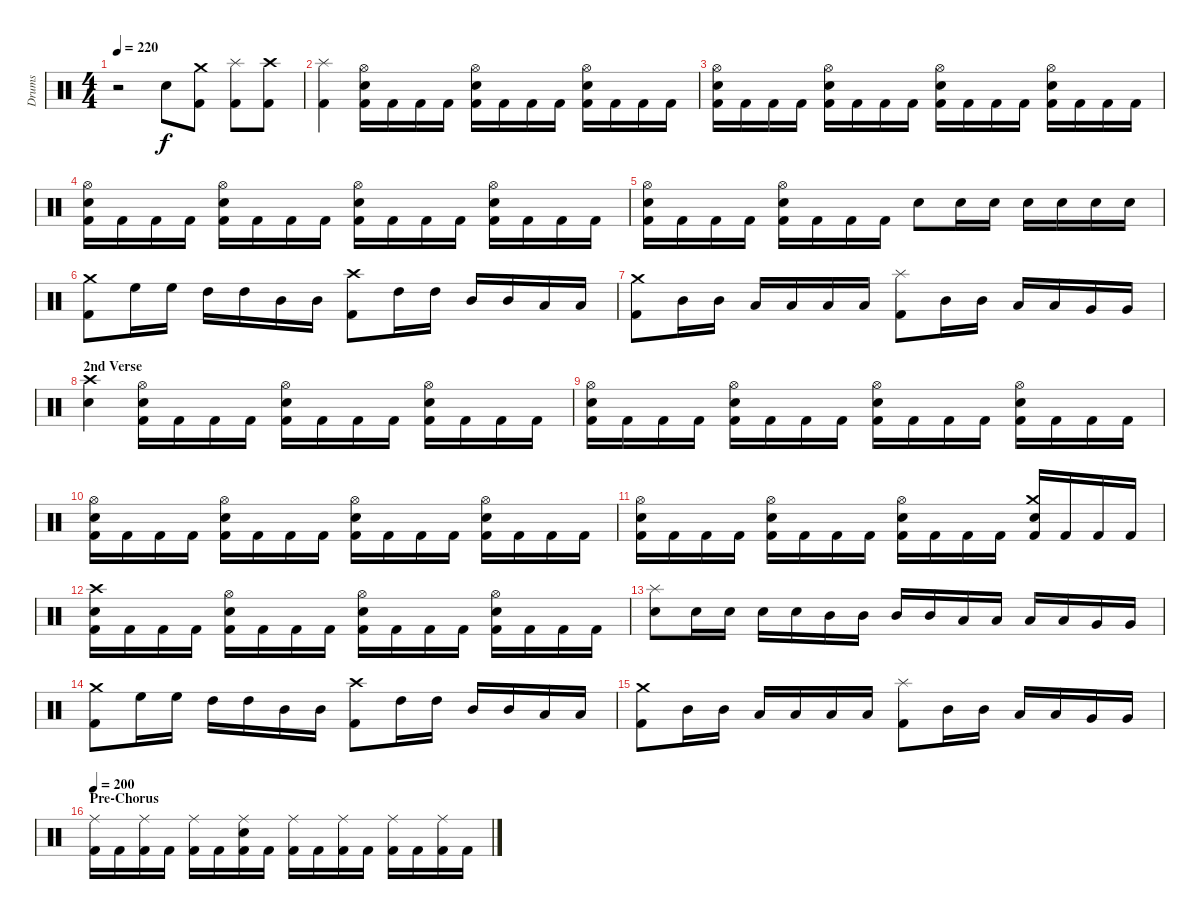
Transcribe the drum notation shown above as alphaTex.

\track ("Drums" "Drums") {instrument percussion}
\staff {score}
\articulation defaults
\ts (4 4)
\tempo 220
\clef neutral
\ks c
r.2{dy f} "Electric Snare (hit)".8 ("Crash medium (hit)" "Kick (hit) 2").8 ("Splash (hit)" "Kick (hit) 2").8 ("Crash high (hit)" "Kick (hit) 2").8 |
("Splash (hit)" "Kick (hit) 2").4 ("Hi-Hat (open)" "Electric Snare (hit)" "Kick (hit) 2").16 "Kick (hit) 2".16 "Kick (hit) 2".16 "Kick (hit) 2".16 ("Hi-Hat (open)" "Electric Snare (hit)" "Kick (hit) 2").16 "Kick (hit) 2".16 "Kick (hit) 2".16 "Kick (hit) 2".16 ("Hi-Hat (open)" "Electric Snare (hit)" "Kick (hit) 2").16 "Kick (hit) 2".16 "Kick (hit) 2".16 "Kick (hit) 2".16 |
("Hi-Hat (open)" "Electric Snare (hit)" "Kick (hit) 2").16 "Kick (hit) 2".16 "Kick (hit) 2".16 "Kick (hit) 2".16 ("Hi-Hat (open)" "Electric Snare (hit)" "Kick (hit) 2").16 "Kick (hit) 2".16 "Kick (hit) 2".16 "Kick (hit) 2".16 ("Hi-Hat (open)" "Electric Snare (hit)" "Kick (hit) 2").16 "Kick (hit) 2".16 "Kick (hit) 2".16 "Kick (hit) 2".16 ("Hi-Hat (open)" "Electric Snare (hit)" "Kick (hit) 2").16 "Kick (hit) 2".16 "Kick (hit) 2".16 "Kick (hit) 2".16 |
("Hi-Hat (open)" "Electric Snare (hit)" "Kick (hit) 2").16 "Kick (hit) 2".16 "Kick (hit) 2".16 "Kick (hit) 2".16 ("Hi-Hat (open)" "Electric Snare (hit)" "Kick (hit) 2").16 "Kick (hit) 2".16 "Kick (hit) 2".16 "Kick (hit) 2".16 ("Hi-Hat (open)" "Electric Snare (hit)" "Kick (hit) 2").16 "Kick (hit) 2".16 "Kick (hit) 2".16 "Kick (hit) 2".16 ("Hi-Hat (open)" "Electric Snare (hit)" "Kick (hit) 2").16 "Kick (hit) 2".16 "Kick (hit) 2".16 "Kick (hit) 2".16 |
("Hi-Hat (open)" "Electric Snare (hit)" "Kick (hit) 2").16 "Kick (hit) 2".16 "Kick (hit) 2".16 "Kick (hit) 2".16 ("Hi-Hat (open)" "Electric Snare (hit)" "Kick (hit) 2").16 "Kick (hit) 2".16 "Kick (hit) 2".16 "Kick (hit) 2".16 "Electric Snare (hit)".8 "Electric Snare (hit)".16 "Electric Snare (hit)".16 "Electric Snare (hit)".16 "Electric Snare (hit)".16 "Electric Snare (hit)".16 "Electric Snare (hit)".16 |
("Crash medium (hit)" "Kick (hit) 2").8 "High Floor Tom (hit)".16 "High Floor Tom (hit)".16 "High Tom (hit)".16 "High Tom (hit)".16 "Mid Tom (hit)".16 "Mid Tom (hit)".16 ("Crash high (hit)" "Kick (hit) 2").8 "High Tom (hit)".16 "High Tom (hit)".16 "Mid Tom (hit)".16 "Mid Tom (hit)".16 "Low Tom (hit)".16 "Low Tom (hit)".16 |
("Crash medium (hit)" "Kick (hit) 2").8 "Mid Tom (hit)".16 "Mid Tom (hit)".16 "Low Tom (hit)".16 "Low Tom (hit)".16 "Low Tom (hit)".16 "Low Tom (hit)".16 ("Splash (hit)" "Kick (hit) 2").8 "Mid Tom (hit)".16 "Mid Tom (hit)".16 "Low Tom (hit)".16 "Low Tom (hit)".16 "Very Low Tom (hit)".16 "Very Low Tom (hit)".16 |
\section ("" "2nd Verse")
("Crash high (hit)" "Electric Snare (hit)").4 ("Hi-Hat (open)" "Electric Snare (hit)" "Kick (hit) 2").16 "Kick (hit) 2".16 "Kick (hit) 2".16 "Kick (hit) 2".16 ("Hi-Hat (open)" "Electric Snare (hit)" "Kick (hit) 2").16 "Kick (hit) 2".16 "Kick (hit) 2".16 "Kick (hit) 2".16 ("Hi-Hat (open)" "Electric Snare (hit)" "Kick (hit) 2").16 "Kick (hit) 2".16 "Kick (hit) 2".16 "Kick (hit) 2".16 |
("Hi-Hat (open)" "Electric Snare (hit)" "Kick (hit) 2").16 "Kick (hit) 2".16 "Kick (hit) 2".16 "Kick (hit) 2".16 ("Hi-Hat (open)" "Electric Snare (hit)" "Kick (hit) 2").16 "Kick (hit) 2".16 "Kick (hit) 2".16 "Kick (hit) 2".16 ("Hi-Hat (open)" "Electric Snare (hit)" "Kick (hit) 2").16 "Kick (hit) 2".16 "Kick (hit) 2".16 "Kick (hit) 2".16 ("Hi-Hat (open)" "Electric Snare (hit)" "Kick (hit) 2").16 "Kick (hit) 2".16 "Kick (hit) 2".16 "Kick (hit) 2".16 |
("Hi-Hat (open)" "Electric Snare (hit)" "Kick (hit) 2").16 "Kick (hit) 2".16 "Kick (hit) 2".16 "Kick (hit) 2".16 ("Hi-Hat (open)" "Electric Snare (hit)" "Kick (hit) 2").16 "Kick (hit) 2".16 "Kick (hit) 2".16 "Kick (hit) 2".16 ("Hi-Hat (open)" "Electric Snare (hit)" "Kick (hit) 2").16 "Kick (hit) 2".16 "Kick (hit) 2".16 "Kick (hit) 2".16 ("Hi-Hat (open)" "Electric Snare (hit)" "Kick (hit) 2").16 "Kick (hit) 2".16 "Kick (hit) 2".16 "Kick (hit) 2".16 |
("Hi-Hat (open)" "Electric Snare (hit)" "Kick (hit) 2").16 "Kick (hit) 2".16 "Kick (hit) 2".16 "Kick (hit) 2".16 ("Hi-Hat (open)" "Electric Snare (hit)" "Kick (hit) 2").16 "Kick (hit) 2".16 "Kick (hit) 2".16 "Kick (hit) 2".16 ("Hi-Hat (open)" "Electric Snare (hit)" "Kick (hit) 2").16 "Kick (hit) 2".16 "Kick (hit) 2".16 "Kick (hit) 2".16 ("Crash medium (hit)" "Electric Snare (hit)" "Kick (hit) 2").16 "Kick (hit) 2".16 "Kick (hit) 2".16 "Kick (hit) 2".16 |
("Crash high (hit)" "Electric Snare (hit)" "Kick (hit) 2").16 "Kick (hit) 2".16 "Kick (hit) 2".16 "Kick (hit) 2".16 ("Hi-Hat (open)" "Electric Snare (hit)" "Kick (hit) 2").16 "Kick (hit) 2".16 "Kick (hit) 2".16 "Kick (hit) 2".16 ("Hi-Hat (open)" "Electric Snare (hit)" "Kick (hit) 2").16 "Kick (hit) 2".16 "Kick (hit) 2".16 "Kick (hit) 2".16 ("Hi-Hat (open)" "Electric Snare (hit)" "Kick (hit) 2").16 "Kick (hit) 2".16 "Kick (hit) 2".16 "Kick (hit) 2".16 |
("Splash (hit)" "Electric Snare (hit)").8 "Electric Snare (hit)".16 "Electric Snare (hit)".16 "Electric Snare (hit)".16 "Electric Snare (hit)".16 "Mid Tom (hit)".16 "Mid Tom (hit)".16 "Mid Tom (hit)".16 "Mid Tom (hit)".16 "Low Tom (hit)".16 "Low Tom (hit)".16 "Low Tom (hit)".16 "Low Tom (hit)".16 "Very Low Tom (hit)".16 "Very Low Tom (hit)".16 |
("Crash medium (hit)" "Kick (hit) 2").8 "High Floor Tom (hit)".16 "High Floor Tom (hit)".16 "High Tom (hit)".16 "High Tom (hit)".16 "Mid Tom (hit)".16 "Mid Tom (hit)".16 ("Crash high (hit)" "Kick (hit) 2").8 "High Tom (hit)".16 "High Tom (hit)".16 "Mid Tom (hit)".16 "Mid Tom (hit)".16 "Low Tom (hit)".16 "Low Tom (hit)".16 |
("Crash medium (hit)" "Kick (hit) 2").8 "Mid Tom (hit)".16 "Mid Tom (hit)".16 "Low Tom (hit)".16 "Low Tom (hit)".16 "Low Tom (hit)".16 "Low Tom (hit)".16 ("Splash (hit)" "Kick (hit) 2").8 "Mid Tom (hit)".16 "Mid Tom (hit)".16 "Low Tom (hit)".16 "Low Tom (hit)".16 "Very Low Tom (hit)".16 "Very Low Tom (hit)".16 |
\section ("" "Pre-Chorus")
\tempo 200
("Ride (middle)" "Kick (hit) 2").16 "Kick (hit) 2".16 ("Ride (middle)" "Kick (hit) 2").16 "Kick (hit) 2".16 ("Ride (middle)" "Kick (hit) 2").16 "Kick (hit) 2".16 ("Ride (middle)" "Electric Snare (hit)" "Kick (hit) 2").16 "Kick (hit) 2".16 ("Ride (middle)" "Kick (hit) 2").16 "Kick (hit) 2".16 ("Ride (middle)" "Kick (hit) 2").16 "Kick (hit) 2".16 ("Ride (middle)" "Kick (hit) 2").16 "Kick (hit) 2".16 ("Ride (middle)" "Kick (hit) 2").16 "Kick (hit) 2".16
